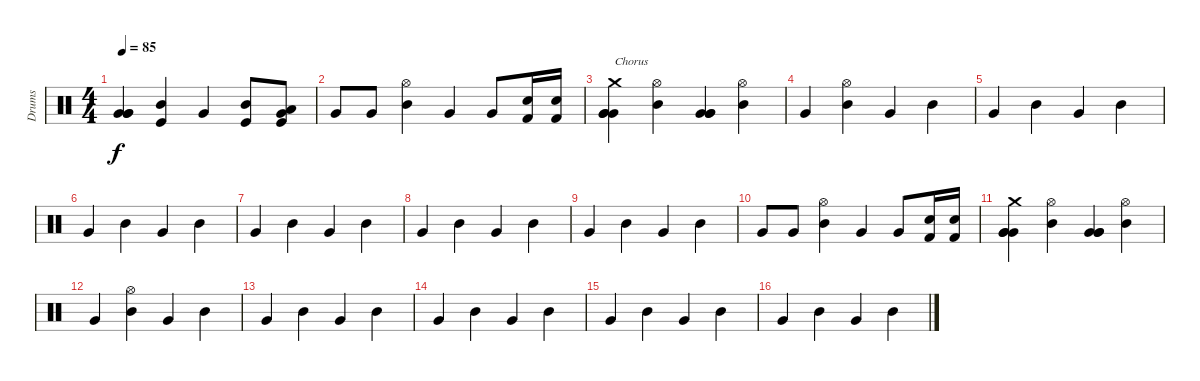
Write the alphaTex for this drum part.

\track ("Drums" "Drums") {instrument percussion}
\staff {score}
\articulation defaults
\ts (4 4)
\tempo 85
\clef neutral
\ks c
("Very Low Tom (hit)" "Very Low Tom (hit)" "Very Low Tom (hit)").4{dy f} ("Mid Tom (hit)" "Kick (hit)").4 "Very Low Tom (hit)".4 ("Mid Tom (hit)" "Kick (hit)").8 ("Very Low Tom (hit)" "Kick (hit)" "Low Tom (hit)").8 |
"Very Low Tom (hit)".8 "Very Low Tom (hit)".8 ("Mid Tom (hit)" "Hi-Hat (open)").4 "Very Low Tom (hit)".4 "Very Low Tom (hit)".8 ("Kick (hit) 2" "Snare (hit) 2").16 ("Kick (hit) 2" "Snare (hit) 2").16 |
("Very Low Tom (hit)" "Very Low Tom (hit)" "Very Low Tom (hit)" "Crash medium (hit)").4{txt "Chorus"} ("Mid Tom (hit)" "Hi-Hat (open)").4 ("Very Low Tom (hit)" "Very Low Tom (hit)" "Very Low Tom (hit)").4 ("Mid Tom (hit)" "Hi-Hat (open)").4 |
"Very Low Tom (hit)".4 ("Mid Tom (hit)" "Hi-Hat (open)").4 "Very Low Tom (hit)".4 "Mid Tom (hit)".4 |
"Very Low Tom (hit)".4 "Mid Tom (hit)".4 "Very Low Tom (hit)".4 "Mid Tom (hit)".4 |
"Very Low Tom (hit)".4 "Mid Tom (hit)".4 "Very Low Tom (hit)".4 "Mid Tom (hit)".4 |
"Very Low Tom (hit)".4 "Mid Tom (hit)".4 "Very Low Tom (hit)".4 "Mid Tom (hit)".4 |
"Very Low Tom (hit)".4 "Mid Tom (hit)".4 "Very Low Tom (hit)".4 "Mid Tom (hit)".4 |
"Very Low Tom (hit)".4 "Mid Tom (hit)".4 "Very Low Tom (hit)".4 "Mid Tom (hit)".4 |
"Very Low Tom (hit)".8 "Very Low Tom (hit)".8 ("Mid Tom (hit)" "Hi-Hat (open)").4 "Very Low Tom (hit)".4 "Very Low Tom (hit)".8 ("Kick (hit) 2" "Snare (hit) 2").16 ("Kick (hit) 2" "Snare (hit) 2").16 |
("Very Low Tom (hit)" "Very Low Tom (hit)" "Very Low Tom (hit)" "Crash medium (hit)").4 ("Mid Tom (hit)" "Hi-Hat (open)").4 ("Very Low Tom (hit)" "Very Low Tom (hit)" "Very Low Tom (hit)").4 ("Mid Tom (hit)" "Hi-Hat (open)").4 |
"Very Low Tom (hit)".4 ("Mid Tom (hit)" "Hi-Hat (open)").4 "Very Low Tom (hit)".4 "Mid Tom (hit)".4 |
"Very Low Tom (hit)".4 "Mid Tom (hit)".4 "Very Low Tom (hit)".4 "Mid Tom (hit)".4 |
"Very Low Tom (hit)".4 "Mid Tom (hit)".4 "Very Low Tom (hit)".4 "Mid Tom (hit)".4 |
"Very Low Tom (hit)".4 "Mid Tom (hit)".4 "Very Low Tom (hit)".4 "Mid Tom (hit)".4 |
"Very Low Tom (hit)".4 "Mid Tom (hit)".4 "Very Low Tom (hit)".4 "Mid Tom (hit)".4
